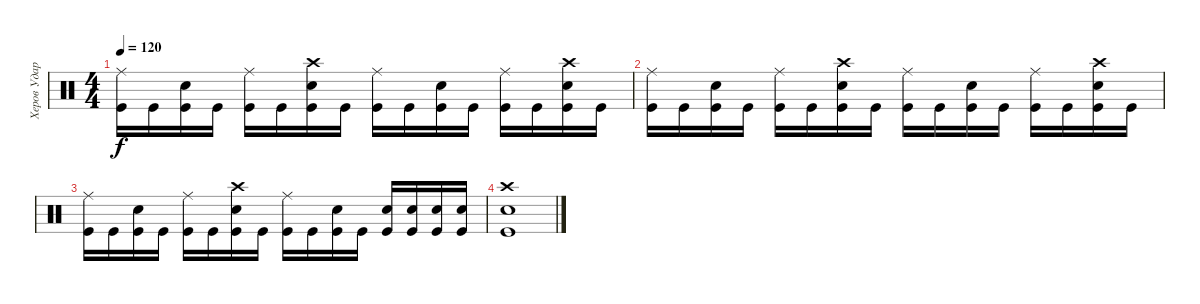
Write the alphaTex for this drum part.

\track ("Херов Ударник" "Херов Удар") {instrument percussion}
\staff {score}
\articulation defaults
\ts (4 4)
\tempo 120
\clef neutral
\ks c
("Ride (middle)" "Kick (hit)").16{dy f} "Kick (hit)".16 ("Electric Snare (hit)" "Kick (hit)").16 "Kick (hit)".16 ("Ride (middle)" "Kick (hit)").16 "Kick (hit)".16 ("Crash high (hit)" "Electric Snare (hit)" "Kick (hit)").16 "Kick (hit)".16 ("Ride (middle)" "Kick (hit)").16 "Kick (hit)".16 ("Electric Snare (hit)" "Kick (hit)").16 "Kick (hit)".16 ("Ride (middle)" "Kick (hit)").16 "Kick (hit)".16 ("Crash high (hit)" "Electric Snare (hit)" "Kick (hit)").16 "Kick (hit)".16 |
("Ride (middle)" "Kick (hit)").16 "Kick (hit)".16 ("Electric Snare (hit)" "Kick (hit)").16 "Kick (hit)".16 ("Ride (middle)" "Kick (hit)").16 "Kick (hit)".16 ("Crash high (hit)" "Electric Snare (hit)" "Kick (hit)").16 "Kick (hit)".16 ("Ride (middle)" "Kick (hit)").16 "Kick (hit)".16 ("Electric Snare (hit)" "Kick (hit)").16 "Kick (hit)".16 ("Ride (middle)" "Kick (hit)").16 "Kick (hit)".16 ("Crash high (hit)" "Electric Snare (hit)" "Kick (hit)").16 "Kick (hit)".16 |
("Ride (middle)" "Kick (hit)").16 "Kick (hit)".16 ("Electric Snare (hit)" "Kick (hit)").16 "Kick (hit)".16 ("Ride (middle)" "Kick (hit)").16 "Kick (hit)".16 ("Crash high (hit)" "Electric Snare (hit)" "Kick (hit)").16 "Kick (hit)".16 ("Ride (middle)" "Kick (hit)").16 "Kick (hit)".16 ("Electric Snare (hit)" "Kick (hit)").16 "Kick (hit)".16 ("Electric Snare (hit)" "Kick (hit)").16 ("Electric Snare (hit)" "Kick (hit)").16 ("Electric Snare (hit)" "Kick (hit)").16 ("Electric Snare (hit)" "Kick (hit)").16 |
("Crash high (hit)" "Electric Snare (hit)" "Kick (hit)").1
